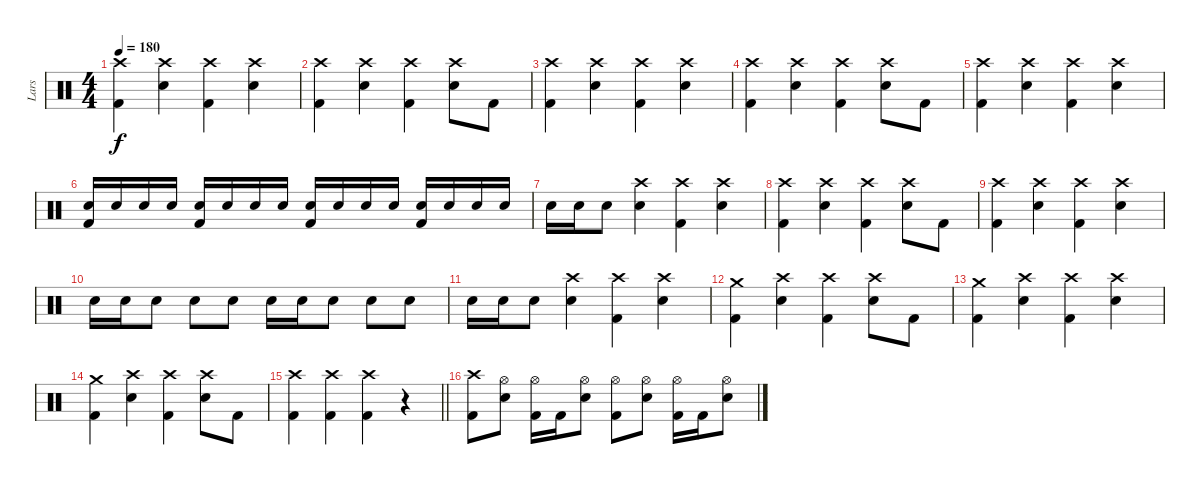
\track ("Lars" "Lars") {instrument percussion}
\staff {score}
\articulation defaults
\ts (4 4)
\tempo 180
\clef neutral
\ks c
("Crash high (hit)" "Kick (hit) 2").4{dy f} ("Crash high (hit)" "Electric Snare (hit)").4 ("Crash high (hit)" "Kick (hit) 2").4 ("Crash high (hit)" "Electric Snare (hit)").4 |
("Crash high (hit)" "Kick (hit) 2").4 ("Crash high (hit)" "Electric Snare (hit)").4 ("Crash high (hit)" "Kick (hit) 2").4 ("Crash high (hit)" "Electric Snare (hit)").8 "Kick (hit) 2".8 |
("Crash high (hit)" "Kick (hit) 2").4 ("Crash high (hit)" "Electric Snare (hit)").4 ("Crash high (hit)" "Kick (hit) 2").4 ("Crash high (hit)" "Electric Snare (hit)").4 |
("Crash high (hit)" "Kick (hit) 2").4 ("Crash high (hit)" "Electric Snare (hit)").4 ("Crash high (hit)" "Kick (hit) 2").4 ("Crash high (hit)" "Electric Snare (hit)").8 "Kick (hit) 2".8 |
("Crash high (hit)" "Kick (hit) 2").4 ("Crash high (hit)" "Electric Snare (hit)").4 ("Crash high (hit)" "Kick (hit) 2").4 ("Crash high (hit)" "Electric Snare (hit)").4 |
("Electric Snare (hit)" "Kick (hit) 2").16 "Electric Snare (hit)".16 "Electric Snare (hit)".16 "Electric Snare (hit)".16 ("Electric Snare (hit)" "Kick (hit) 2").16 "Electric Snare (hit)".16 "Electric Snare (hit)".16 "Electric Snare (hit)".16 ("Electric Snare (hit)" "Kick (hit) 2").16 "Electric Snare (hit)".16 "Electric Snare (hit)".16 "Electric Snare (hit)".16 ("Electric Snare (hit)" "Kick (hit) 2").16 "Electric Snare (hit)".16 "Electric Snare (hit)".16 "Electric Snare (hit)".16 |
"Electric Snare (hit)".16 "Electric Snare (hit)".16 "Electric Snare (hit)".8 ("Crash high (hit)" "Electric Snare (hit)").4 ("Crash high (hit)" "Kick (hit) 2").4 ("Crash high (hit)" "Electric Snare (hit)").4 |
("Crash high (hit)" "Kick (hit) 2").4 ("Crash high (hit)" "Electric Snare (hit)").4 ("Crash high (hit)" "Kick (hit) 2").4 ("Crash high (hit)" "Electric Snare (hit)").8 "Kick (hit) 2".8 |
("Crash high (hit)" "Kick (hit) 2").4 ("Crash high (hit)" "Electric Snare (hit)").4 ("Crash high (hit)" "Kick (hit) 2").4 ("Crash high (hit)" "Electric Snare (hit)").4 |
"Electric Snare (hit)".16 "Electric Snare (hit)".16 "Electric Snare (hit)".8 "Electric Snare (hit)".8 "Electric Snare (hit)".8 "Electric Snare (hit)".16 "Electric Snare (hit)".16 "Electric Snare (hit)".8 "Electric Snare (hit)".8 "Electric Snare (hit)".8 |
"Electric Snare (hit)".16 "Electric Snare (hit)".16 "Electric Snare (hit)".8 ("Crash high (hit)" "Electric Snare (hit)").4 ("Crash high (hit)" "Kick (hit) 2").4 ("Crash high (hit)" "Electric Snare (hit)").4 |
("Crash medium (hit)" "Kick (hit) 2").4 ("Crash high (hit)" "Electric Snare (hit)").4 ("Crash high (hit)" "Kick (hit) 2").4 ("Crash high (hit)" "Electric Snare (hit)").8 "Kick (hit) 2".8 |
("Crash medium (hit)" "Kick (hit) 2").4 ("Crash high (hit)" "Electric Snare (hit)").4 ("Crash high (hit)" "Kick (hit) 2").4 ("Crash high (hit)" "Electric Snare (hit)").4 |
("Crash medium (hit)" "Kick (hit) 2").4 ("Crash high (hit)" "Electric Snare (hit)").4 ("Crash high (hit)" "Kick (hit) 2").4 ("Crash high (hit)" "Electric Snare (hit)").8 "Kick (hit) 2".8 |
\barLineRight lightlight
("Crash high (hit)" "Kick (hit) 2").4 ("Crash high (hit)" "Kick (hit) 2").4 ("Crash high (hit)" "Kick (hit) 2").4 r.4 |
\section ("" "")
("Crash high (hit)" "Kick (hit) 2").8 ("Hi-Hat (open)" "Electric Snare (hit)").8 ("Hi-Hat (open)" "Kick (hit) 2").16 "Kick (hit) 2".16 ("Hi-Hat (open)" "Electric Snare (hit)").8 ("Hi-Hat (open)" "Kick (hit) 2").8 ("Hi-Hat (open)" "Electric Snare (hit)").8 ("Hi-Hat (open)" "Kick (hit) 2").16 "Kick (hit) 2".16 ("Hi-Hat (open)" "Electric Snare (hit)").8
